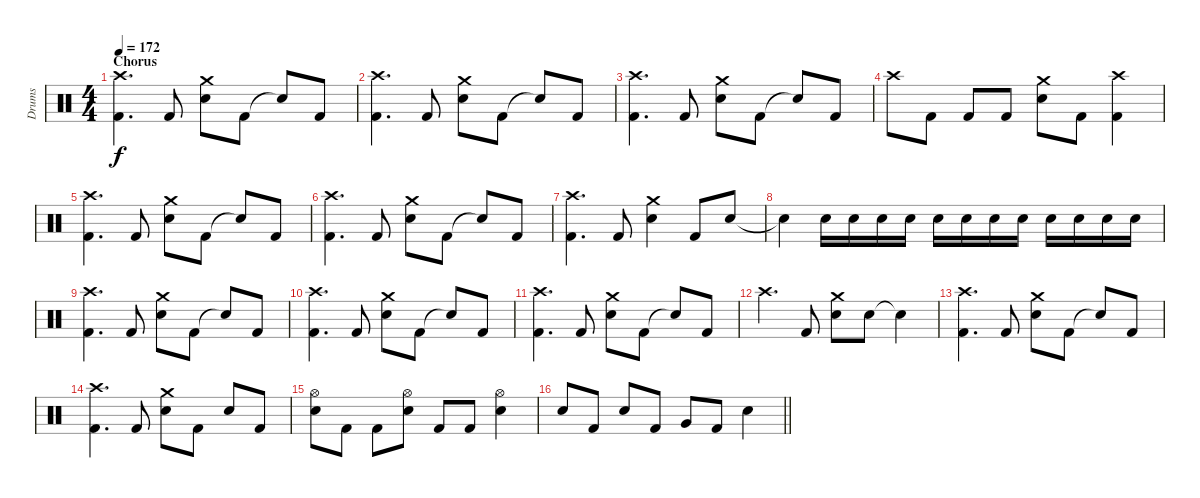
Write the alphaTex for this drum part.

\track ("Drums" "Drums") {instrument percussion}
\staff {score}
\articulation defaults
\ts (4 4)
\section ("" "Chorus")
\tempo 172
\clef neutral
\ks c
("Crash high (hit)" "Kick (hit) 2").4{d dy f} "Kick (hit) 2".8 ("Crash medium (hit)" "Electric Snare (hit)").8 "Kick (hit) 2".8 "Snare (hit)"{t}.8 "Kick (hit) 2".8 |
("Crash high (hit)" "Kick (hit) 2").4{d} "Kick (hit) 2".8 ("Crash medium (hit)" "Electric Snare (hit)").8 "Kick (hit) 2".8 "Snare (hit)"{t}.8 "Kick (hit) 2".8 |
("Crash high (hit)" "Kick (hit) 2").4{d} "Kick (hit) 2".8 ("Crash medium (hit)" "Electric Snare (hit)").8 "Kick (hit) 2".8 "Snare (hit)"{t}.8 "Kick (hit) 2".8 |
"Crash high (hit)".8 "Kick (hit) 2".8 "Kick (hit) 2".8 "Kick (hit) 2".8 ("Crash medium (hit)" "Electric Snare (hit)").8 "Kick (hit) 2".8 ("Crash high (hit)" "Kick (hit) 2").4 |
("Crash high (hit)" "Kick (hit) 2").4{d} "Kick (hit) 2".8 ("Crash medium (hit)" "Electric Snare (hit)").8 "Kick (hit) 2".8 "Snare (hit)"{t}.8 "Kick (hit) 2".8 |
("Crash high (hit)" "Kick (hit) 2").4{d} "Kick (hit) 2".8 ("Crash medium (hit)" "Electric Snare (hit)").8 "Kick (hit) 2".8 "Snare (hit)"{t}.8 "Kick (hit) 2".8 |
("Crash high (hit)" "Kick (hit) 2").4{d} "Kick (hit) 2".8 ("Crash medium (hit)" "Electric Snare (hit)").4 "Kick (hit) 2".8 "Electric Snare (hit)".8 |
"Snare (hit)"{t}.4 "Electric Snare (hit)".16 "Electric Snare (hit)".16 "Electric Snare (hit)".16 "Electric Snare (hit)".16 "Electric Snare (hit)".16 "Electric Snare (hit)".16 "Electric Snare (hit)".16 "Electric Snare (hit)".16 "Electric Snare (hit)".16 "Electric Snare (hit)".16 "Electric Snare (hit)".16 "Electric Snare (hit)".16 |
("Crash high (hit)" "Kick (hit) 2").4{d} "Kick (hit) 2".8 ("Crash medium (hit)" "Electric Snare (hit)").8 "Kick (hit) 2".8 "Snare (hit)"{t}.8 "Kick (hit) 2".8 |
("Crash high (hit)" "Kick (hit) 2").4{d} "Kick (hit) 2".8 ("Crash medium (hit)" "Electric Snare (hit)").8 "Kick (hit) 2".8 "Snare (hit)"{t}.8 "Kick (hit) 2".8 |
("Crash high (hit)" "Kick (hit) 2").4{d} "Kick (hit) 2".8 ("Crash medium (hit)" "Electric Snare (hit)").8 "Kick (hit) 2".8 "Snare (hit)"{t}.8 "Kick (hit) 2".8 |
"Crash high (hit)".4{d} "Kick (hit) 2".8 ("Crash medium (hit)" "Electric Snare (hit)").8 "Electric Snare (hit)".8 "Snare (hit)"{t}.4 |
("Crash high (hit)" "Kick (hit) 2").4{d} "Kick (hit) 2".8 ("Crash medium (hit)" "Electric Snare (hit)").8 "Kick (hit) 2".8 "Snare (hit)"{t}.8 "Kick (hit) 2".8 |
("Crash high (hit)" "Kick (hit) 2").4{d} "Kick (hit) 2".8 ("Crash medium (hit)" "Electric Snare (hit)").8 "Kick (hit) 2".8 "Electric Snare (hit)".8 "Kick (hit) 2".8 |
("Hi-Hat (open)" "Electric Snare (hit)").8 "Kick (hit) 2".8 "Kick (hit) 2".8 ("Hi-Hat (open)" "Electric Snare (hit)").8 "Kick (hit) 2".8 "Kick (hit) 2".8 ("Hi-Hat (open)" "Electric Snare (hit)").4 |
\barLineRight lightlight "Electric Snare (hit)".8 "Kick (hit) 2".8 "Electric Snare (hit)".8 "Kick (hit) 2".8 "Very Low Tom (hit)".8 "Kick (hit) 2".8 "Electric Snare (hit)".4
